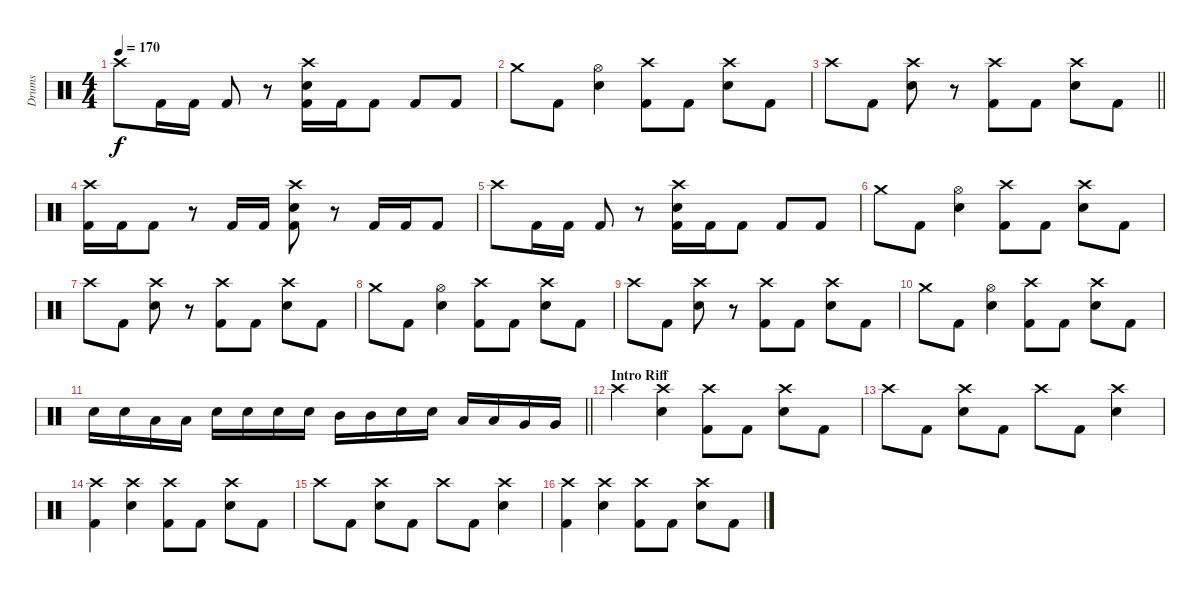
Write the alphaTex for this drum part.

\track ("Drums" "Drums") {instrument percussion}
\staff {score}
\articulation defaults
\ts (4 4)
\tempo 170
\clef neutral
\ks c "Crash high (hit)".8{dy f} "Kick (hit) 2".16 "Kick (hit) 2".16 "Kick (hit) 2".8
r.8 ("Crash high (hit)" "Snare (hit) 2" "Kick (hit) 2").16 "Kick (hit) 2".16 "Kick (hit) 2".8 "Kick (hit) 2".8 "Kick (hit) 2".8 |
"Crash medium (hit)".8 "Kick (hit) 2".8 ("Hi-Hat (open)" "Snare (hit) 2").4 ("Crash high (hit)" "Kick (hit) 2").8 "Kick (hit) 2".8 ("Crash high (hit)" "Snare (hit) 2").8 "Kick (hit) 2".8 |
\barLineRight lightlight "Crash high (hit)".8 "Kick (hit) 2".8
("Crash high (hit)" "Snare (hit) 2").8 r.8 ("Crash high (hit)" "Kick (hit) 2").8 "Kick (hit) 2".8 ("Crash high (hit)" "Snare (hit) 2").8 "Kick (hit) 2".8 |
("Crash high (hit)" "Kick (hit) 2").16 "Kick (hit) 2".16 "Kick (hit) 2".8 r.8 "Kick (hit) 2".16 "Kick (hit) 2".16 ("Crash high (hit)" "Snare (hit) 2" "Kick (hit) 2").8 r.8 "Kick (hit) 2".16 "Kick (hit) 2".16 "Kick (hit) 2".8 |
"Crash high (hit)".8 "Kick (hit) 2".16 "Kick (hit) 2".16 "Kick (hit) 2".8 r.8 ("Crash high (hit)" "Snare (hit) 2" "Kick (hit) 2").16 "Kick (hit) 2".16 "Kick (hit) 2".8 "Kick (hit) 2".8 "Kick (hit) 2".8 |
"Crash medium (hit)".8 "Kick (hit) 2".8 ("Hi-Hat (open)" "Snare (hit) 2").4 ("Crash high (hit)" "Kick (hit) 2").8 "Kick (hit) 2".8 ("Crash high (hit)" "Snare (hit) 2").8 "Kick (hit) 2".8 |
"Crash high (hit)".8 "Kick (hit) 2".8 ("Crash high (hit)" "Snare (hit) 2").8 r.8 ("Crash high (hit)" "Kick (hit) 2").8 "Kick (hit) 2".8 ("Crash high (hit)" "Snare (hit) 2").8 "Kick (hit) 2".8 |
"Crash medium (hit)".8 "Kick (hit) 2".8 ("Hi-Hat (open)" "Snare (hit) 2").4 ("Crash high (hit)" "Kick (hit) 2").8 "Kick (hit) 2".8 ("Crash high (hit)" "Snare (hit) 2").8 "Kick (hit) 2".8 |
"Crash high (hit)".8 "Kick (hit) 2".8 ("Crash high (hit)" "Snare (hit) 2").8 r.8 ("Crash high (hit)" "Kick (hit) 2").8 "Kick (hit) 2".8 ("Crash high (hit)" "Snare (hit) 2").8 "Kick (hit) 2".8 |
"Crash medium (hit)".8 "Kick (hit) 2".8 ("Hi-Hat (open)" "Snare (hit) 2").4 ("Crash high (hit)" "Kick (hit) 2").8 "Kick (hit) 2".8 ("Crash high (hit)" "Snare (hit) 2").8 "Kick (hit) 2".8 |
\barLineRight lightlight "Snare (hit) 2".16 "Snare (hit) 2".16 "Low Tom (hit)".16 "Low Tom (hit)".16 "Snare (hit) 2".16 "Snare (hit) 2".16 "Snare (hit) 2".16 "Snare (hit) 2".16 "Mid Tom (hit)".16 "Mid Tom (hit)".16 "Snare (hit) 2".16 "Snare (hit) 2".16 "Low Tom (hit)".16 "Low Tom (hit)".16 "Very Low Tom (hit)".16 "Very Low Tom (hit)".16
|
\section ("" "Intro Riff")
"Crash high (hit)".4 ("Crash high (hit)" "Snare (hit) 2").4 ("Crash high (hit)" "Kick (hit) 2").8 "Kick (hit) 2".8 ("Crash high (hit)" "Snare (hit) 2").8 "Kick (hit) 2".8 |
"Crash high (hit)".8 "Kick (hit) 2".8 ("Crash high (hit)" "Snare (hit) 2").8 "Kick (hit) 2".8 "Crash high (hit)".8 "Kick (hit) 2".8 ("Crash high (hit)" "Snare (hit) 2").4 |
("Crash high (hit)" "Kick (hit) 2").4 ("Crash high (hit)" "Snare (hit) 2").4 ("Crash high (hit)" "Kick (hit) 2").8 "Kick (hit) 2".8 ("Crash high (hit)" "Snare (hit) 2").8 "Kick (hit) 2".8 |
"Crash high (hit)".8 "Kick (hit) 2".8 ("Crash high (hit)" "Snare (hit) 2").8 "Kick (hit) 2".8 "Crash high (hit)".8 "Kick (hit) 2".8 ("Crash high (hit)" "Snare (hit) 2").4 |
("Crash high (hit)" "Kick (hit) 2").4 ("Crash high (hit)" "Snare (hit) 2").4 ("Crash high (hit)" "Kick (hit) 2").8 "Kick (hit) 2".8 ("Crash high (hit)" "Snare (hit) 2").8 "Kick (hit) 2".8
